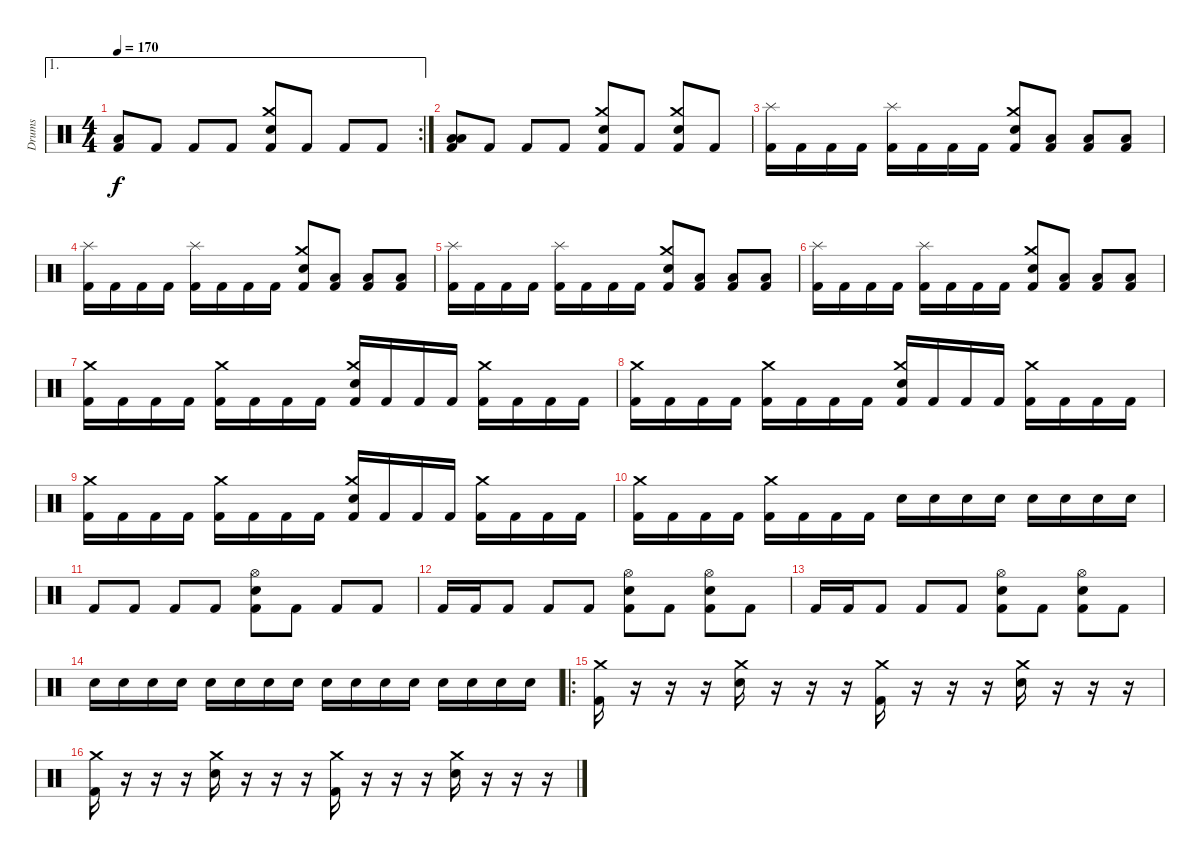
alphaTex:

\track ("Drums" "Drums") {instrument percussion}
\staff {score}
\articulation defaults
\ae 1
\rc 2
\ts (4 4)
\tempo 170
\clef neutral
\ks c
("Low Tom (hit)" "Kick (hit) 2").8{dy f} "Kick (hit) 2".8 "Kick (hit) 2".8 "Kick (hit) 2".8 ("Crash medium (hit)" "Electric Snare (hit)" "Kick (hit) 2").8 "Kick (hit) 2".8 "Kick (hit) 2".8 "Kick (hit) 2".8 |
("Low Tom (hit)" "Low Tom (hit)" "Kick (hit) 2").8 "Kick (hit) 2".8 "Kick (hit) 2".8 "Kick (hit) 2".8 ("Crash medium (hit)" "Electric Snare (hit)" "Kick (hit) 2").8 "Kick (hit) 2".8 ("Crash medium (hit)" "Electric Snare (hit)" "Kick (hit) 2").8 "Kick (hit) 2".8 |
("Splash (hit)" "Kick (hit) 2").16 "Kick (hit) 2".16 "Kick (hit) 2".16 "Kick (hit) 2".16 ("Splash (hit)" "Kick (hit) 2").16 "Kick (hit) 2".16 "Kick (hit) 2".16 "Kick (hit) 2".16 ("Crash medium (hit)" "Electric Snare (hit)" "Kick (hit) 2").8 ("Low Tom (hit)" "Kick (hit) 2").8 ("Low Tom (hit)" "Kick (hit) 2").8 ("Low Tom (hit)" "Kick (hit) 2").8 |
("Splash (hit)" "Kick (hit) 2").16 "Kick (hit) 2".16 "Kick (hit) 2".16 "Kick (hit) 2".16 ("Splash (hit)" "Kick (hit) 2").16 "Kick (hit) 2".16 "Kick (hit) 2".16 "Kick (hit) 2".16 ("Crash medium (hit)" "Electric Snare (hit)" "Kick (hit) 2").8 ("Low Tom (hit)" "Kick (hit) 2").8 ("Low Tom (hit)" "Kick (hit) 2").8 ("Low Tom (hit)" "Kick (hit) 2").8 |
("Splash (hit)" "Kick (hit) 2").16 "Kick (hit) 2".16 "Kick (hit) 2".16 "Kick (hit) 2".16 ("Splash (hit)" "Kick (hit) 2").16 "Kick (hit) 2".16 "Kick (hit) 2".16 "Kick (hit) 2".16 ("Crash medium (hit)" "Electric Snare (hit)" "Kick (hit) 2").8 ("Low Tom (hit)" "Kick (hit) 2").8 ("Low Tom (hit)" "Kick (hit) 2").8 ("Low Tom (hit)" "Kick (hit) 2").8 |
("Splash (hit)" "Kick (hit) 2").16 "Kick (hit) 2".16 "Kick (hit) 2".16 "Kick (hit) 2".16 ("Splash (hit)" "Kick (hit) 2").16 "Kick (hit) 2".16 "Kick (hit) 2".16 "Kick (hit) 2".16 ("Crash medium (hit)" "Electric Snare (hit)" "Kick (hit) 2").8 ("Low Tom (hit)" "Kick (hit) 2").8 ("Low Tom (hit)" "Kick (hit) 2").8 ("Low Tom (hit)" "Kick (hit) 2").8 |
("Crash medium (hit)" "Kick (hit) 2").16 "Kick (hit) 2".16 "Kick (hit) 2".16 "Kick (hit) 2".16 ("Crash medium (hit)" "Kick (hit) 2").16 "Kick (hit) 2".16 "Kick (hit) 2".16 "Kick (hit) 2".16 ("Crash medium (hit)" "Electric Snare (hit)" "Kick (hit) 2").16 "Kick (hit) 2".16 "Kick (hit) 2".16 "Kick (hit) 2".16 ("Crash medium (hit)" "Kick (hit) 2").16 "Kick (hit) 2".16 "Kick (hit) 2".16 "Kick (hit) 2".16 |
("Crash medium (hit)" "Kick (hit) 2").16 "Kick (hit) 2".16 "Kick (hit) 2".16 "Kick (hit) 2".16 ("Crash medium (hit)" "Kick (hit) 2").16 "Kick (hit) 2".16 "Kick (hit) 2".16 "Kick (hit) 2".16 ("Crash medium (hit)" "Electric Snare (hit)" "Kick (hit) 2").16 "Kick (hit) 2".16 "Kick (hit) 2".16 "Kick (hit) 2".16 ("Crash medium (hit)" "Kick (hit) 2").16 "Kick (hit) 2".16 "Kick (hit) 2".16 "Kick (hit) 2".16 |
("Crash medium (hit)" "Kick (hit) 2").16 "Kick (hit) 2".16 "Kick (hit) 2".16 "Kick (hit) 2".16 ("Crash medium (hit)" "Kick (hit) 2").16 "Kick (hit) 2".16 "Kick (hit) 2".16 "Kick (hit) 2".16 ("Crash medium (hit)" "Electric Snare (hit)" "Kick (hit) 2").16 "Kick (hit) 2".16 "Kick (hit) 2".16 "Kick (hit) 2".16 ("Crash medium (hit)" "Kick (hit) 2").16 "Kick (hit) 2".16 "Kick (hit) 2".16 "Kick (hit) 2".16 |
("Crash medium (hit)" "Kick (hit) 2").16 "Kick (hit) 2".16 "Kick (hit) 2".16 "Kick (hit) 2".16 ("Crash medium (hit)" "Kick (hit) 2").16 "Kick (hit) 2".16 "Kick (hit) 2".16 "Kick (hit) 2".16 "Electric Snare (hit)".16 "Electric Snare (hit)".16 "Electric Snare (hit)".16 "Electric Snare (hit)".16 "Electric Snare (hit)".16 "Electric Snare (hit)".16 "Electric Snare (hit)".16 "Electric Snare (hit)".16 |
"Kick (hit) 2".8 "Kick (hit) 2".8 "Kick (hit) 2".8 "Kick (hit) 2".8 ("Hi-Hat (open)" "Electric Snare (hit)" "Kick (hit) 2").8 "Kick (hit) 2".8 "Kick (hit) 2".8 "Kick (hit) 2".8 |
"Kick (hit) 2".16 "Kick (hit) 2".16 "Kick (hit) 2".8 "Kick (hit) 2".8 "Kick (hit) 2".8 ("Hi-Hat (open)" "Electric Snare (hit)" "Kick (hit) 2").8 "Kick (hit) 2".8 ("Hi-Hat (open)" "Electric Snare (hit)" "Kick (hit) 2").8 "Kick (hit) 2".8 |
"Kick (hit) 2".16 "Kick (hit) 2".16 "Kick (hit) 2".8 "Kick (hit) 2".8 "Kick (hit) 2".8 ("Hi-Hat (open)" "Electric Snare (hit)" "Kick (hit) 2").8 "Kick (hit) 2".8 ("Hi-Hat (open)" "Electric Snare (hit)" "Kick (hit) 2").8 "Kick (hit) 2".8 |
"Electric Snare (hit)".16 "Electric Snare (hit)".16 "Electric Snare (hit)".16 "Electric Snare (hit)".16 "Electric Snare (hit)".16 "Electric Snare (hit)".16 "Electric Snare (hit)".16 "Electric Snare (hit)".16 "Electric Snare (hit)".16 "Electric Snare (hit)".16 "Electric Snare (hit)".16 "Electric Snare (hit)".16 "Electric Snare (hit)".16 "Electric Snare (hit)".16 "Electric Snare (hit)".16 "Electric Snare (hit)".16 |
\ro
("Crash medium (hit)" "Kick (hit) 2").16 r.16 r.16 r.16 ("Crash medium (hit)" "Electric Snare (hit)").16 r.16 r.16 r.16 ("Crash medium (hit)" "Kick (hit) 2").16 r.16 r.16 r.16 ("Crash medium (hit)" "Electric Snare (hit)").16 r.16 r.16 r.16 |
("Crash medium (hit)" "Kick (hit) 2").16 r.16 r.16 r.16 ("Crash medium (hit)" "Electric Snare (hit)").16 r.16 r.16 r.16 ("Crash medium (hit)" "Kick (hit) 2").16 r.16 r.16 r.16 ("Crash medium (hit)" "Electric Snare (hit)").16 r.16 r.16 r.16
